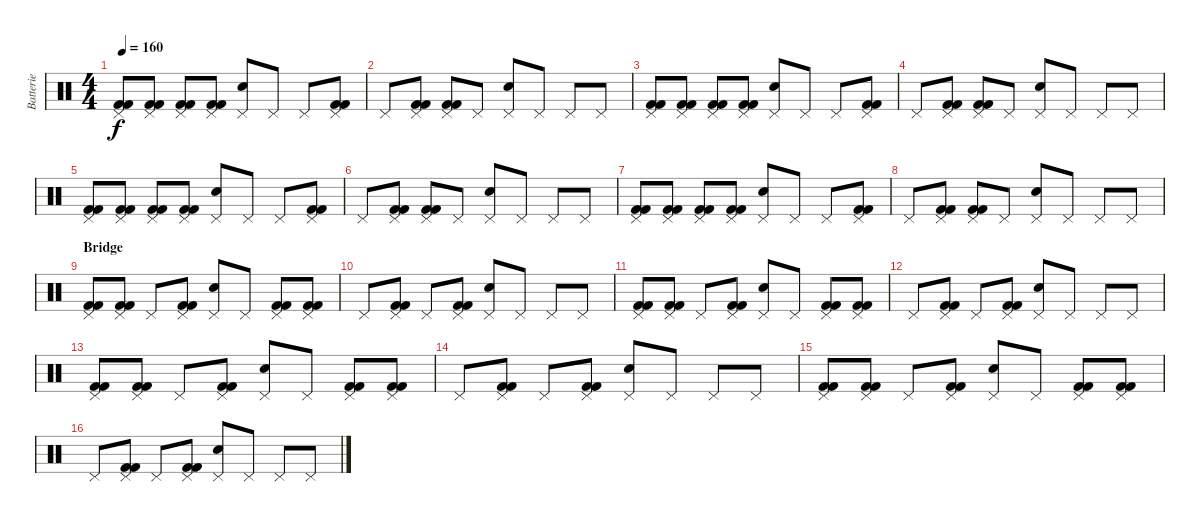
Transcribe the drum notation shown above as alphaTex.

\track ("Batterie" "Batterie") {instrument percussion}
\staff {score}
\articulation defaults
\ts (4 4)
\tempo 160
\clef neutral
\ks c
("Pedal Hi-Hat (hit)" "Kick (hit) 2" "Kick (hit) 2").8{dy f} ("Pedal Hi-Hat (hit)" "Kick (hit) 2" "Kick (hit) 2").8 ("Pedal Hi-Hat (hit)" "Kick (hit) 2" "Kick (hit) 2").8 ("Pedal Hi-Hat (hit)" "Kick (hit) 2" "Kick (hit) 2").8 ("Pedal Hi-Hat (hit)" "Electric Snare (hit)").8 "Pedal Hi-Hat (hit)".8 "Pedal Hi-Hat (hit)".8 ("Pedal Hi-Hat (hit)" "Kick (hit) 2" "Kick (hit) 2").8 |
"Pedal Hi-Hat (hit)".8 ("Pedal Hi-Hat (hit)" "Kick (hit) 2" "Kick (hit) 2").8 ("Pedal Hi-Hat (hit)" "Kick (hit) 2" "Kick (hit) 2").8 "Pedal Hi-Hat (hit)".8 ("Pedal Hi-Hat (hit)" "Electric Snare (hit)").8 "Pedal Hi-Hat (hit)".8 "Pedal Hi-Hat (hit)".8 "Pedal Hi-Hat (hit)".8 |
("Pedal Hi-Hat (hit)" "Kick (hit) 2" "Kick (hit) 2").8 ("Pedal Hi-Hat (hit)" "Kick (hit) 2" "Kick (hit) 2").8 ("Pedal Hi-Hat (hit)" "Kick (hit) 2" "Kick (hit) 2").8 ("Pedal Hi-Hat (hit)" "Kick (hit) 2" "Kick (hit) 2").8 ("Pedal Hi-Hat (hit)" "Electric Snare (hit)").8 "Pedal Hi-Hat (hit)".8 "Pedal Hi-Hat (hit)".8 ("Pedal Hi-Hat (hit)" "Kick (hit) 2" "Kick (hit) 2").8 |
"Pedal Hi-Hat (hit)".8 ("Pedal Hi-Hat (hit)" "Kick (hit) 2" "Kick (hit) 2").8 ("Pedal Hi-Hat (hit)" "Kick (hit) 2" "Kick (hit) 2").8 "Pedal Hi-Hat (hit)".8 ("Pedal Hi-Hat (hit)" "Electric Snare (hit)").8 "Pedal Hi-Hat (hit)".8 "Pedal Hi-Hat (hit)".8 "Pedal Hi-Hat (hit)".8 |
("Pedal Hi-Hat (hit)" "Kick (hit) 2" "Kick (hit) 2").8 ("Pedal Hi-Hat (hit)" "Kick (hit) 2" "Kick (hit) 2").8 ("Pedal Hi-Hat (hit)" "Kick (hit) 2" "Kick (hit) 2").8 ("Pedal Hi-Hat (hit)" "Kick (hit) 2" "Kick (hit) 2").8 ("Pedal Hi-Hat (hit)" "Electric Snare (hit)").8 "Pedal Hi-Hat (hit)".8 "Pedal Hi-Hat (hit)".8 ("Pedal Hi-Hat (hit)" "Kick (hit) 2" "Kick (hit) 2").8 |
"Pedal Hi-Hat (hit)".8 ("Pedal Hi-Hat (hit)" "Kick (hit) 2" "Kick (hit) 2").8 ("Pedal Hi-Hat (hit)" "Kick (hit) 2" "Kick (hit) 2").8 "Pedal Hi-Hat (hit)".8 ("Pedal Hi-Hat (hit)" "Electric Snare (hit)").8 "Pedal Hi-Hat (hit)".8 "Pedal Hi-Hat (hit)".8 "Pedal Hi-Hat (hit)".8 |
("Pedal Hi-Hat (hit)" "Kick (hit) 2" "Kick (hit) 2").8 ("Pedal Hi-Hat (hit)" "Kick (hit) 2" "Kick (hit) 2").8 ("Pedal Hi-Hat (hit)" "Kick (hit) 2" "Kick (hit) 2").8 ("Pedal Hi-Hat (hit)" "Kick (hit) 2" "Kick (hit) 2").8 ("Pedal Hi-Hat (hit)" "Electric Snare (hit)").8 "Pedal Hi-Hat (hit)".8 "Pedal Hi-Hat (hit)".8 ("Pedal Hi-Hat (hit)" "Kick (hit) 2" "Kick (hit) 2").8 |
"Pedal Hi-Hat (hit)".8 ("Pedal Hi-Hat (hit)" "Kick (hit) 2" "Kick (hit) 2").8 ("Pedal Hi-Hat (hit)" "Kick (hit) 2" "Kick (hit) 2").8 "Pedal Hi-Hat (hit)".8 ("Pedal Hi-Hat (hit)" "Electric Snare (hit)").8 "Pedal Hi-Hat (hit)".8 "Pedal Hi-Hat (hit)".8 "Pedal Hi-Hat (hit)".8 |
\section ("" "Bridge")
("Pedal Hi-Hat (hit)" "Kick (hit) 2" "Kick (hit) 2").8 ("Pedal Hi-Hat (hit)" "Kick (hit) 2" "Kick (hit) 2").8 "Pedal Hi-Hat (hit)".8 ("Pedal Hi-Hat (hit)" "Kick (hit) 2" "Kick (hit) 2").8 ("Pedal Hi-Hat (hit)" "Electric Snare (hit)").8 "Pedal Hi-Hat (hit)".8 ("Pedal Hi-Hat (hit)" "Kick (hit) 2" "Kick (hit) 2").8 ("Pedal Hi-Hat (hit)" "Kick (hit) 2" "Kick (hit) 2").8 |
"Pedal Hi-Hat (hit)".8 ("Pedal Hi-Hat (hit)" "Kick (hit) 2" "Kick (hit) 2").8 "Pedal Hi-Hat (hit)".8 ("Pedal Hi-Hat (hit)" "Kick (hit) 2" "Kick (hit) 2").8 ("Pedal Hi-Hat (hit)" "Electric Snare (hit)").8 "Pedal Hi-Hat (hit)".8 "Pedal Hi-Hat (hit)".8 "Pedal Hi-Hat (hit)".8 |
("Pedal Hi-Hat (hit)" "Kick (hit) 2" "Kick (hit) 2").8 ("Pedal Hi-Hat (hit)" "Kick (hit) 2" "Kick (hit) 2").8 "Pedal Hi-Hat (hit)".8 ("Pedal Hi-Hat (hit)" "Kick (hit) 2" "Kick (hit) 2").8 ("Pedal Hi-Hat (hit)" "Electric Snare (hit)").8 "Pedal Hi-Hat (hit)".8 ("Pedal Hi-Hat (hit)" "Kick (hit) 2" "Kick (hit) 2").8 ("Pedal Hi-Hat (hit)" "Kick (hit) 2" "Kick (hit) 2").8 |
"Pedal Hi-Hat (hit)".8 ("Pedal Hi-Hat (hit)" "Kick (hit) 2" "Kick (hit) 2").8 "Pedal Hi-Hat (hit)".8 ("Pedal Hi-Hat (hit)" "Kick (hit) 2" "Kick (hit) 2").8 ("Pedal Hi-Hat (hit)" "Electric Snare (hit)").8 "Pedal Hi-Hat (hit)".8 "Pedal Hi-Hat (hit)".8 "Pedal Hi-Hat (hit)".8 |
("Pedal Hi-Hat (hit)" "Kick (hit) 2" "Kick (hit) 2").8 ("Pedal Hi-Hat (hit)" "Kick (hit) 2" "Kick (hit) 2").8 "Pedal Hi-Hat (hit)".8 ("Pedal Hi-Hat (hit)" "Kick (hit) 2" "Kick (hit) 2").8 ("Pedal Hi-Hat (hit)" "Electric Snare (hit)").8 "Pedal Hi-Hat (hit)".8 ("Pedal Hi-Hat (hit)" "Kick (hit) 2" "Kick (hit) 2").8 ("Pedal Hi-Hat (hit)" "Kick (hit) 2" "Kick (hit) 2").8 |
"Pedal Hi-Hat (hit)".8 ("Pedal Hi-Hat (hit)" "Kick (hit) 2" "Kick (hit) 2").8 "Pedal Hi-Hat (hit)".8 ("Pedal Hi-Hat (hit)" "Kick (hit) 2" "Kick (hit) 2").8 ("Pedal Hi-Hat (hit)" "Electric Snare (hit)").8 "Pedal Hi-Hat (hit)".8 "Pedal Hi-Hat (hit)".8 "Pedal Hi-Hat (hit)".8 |
("Pedal Hi-Hat (hit)" "Kick (hit) 2" "Kick (hit) 2").8 ("Pedal Hi-Hat (hit)" "Kick (hit) 2" "Kick (hit) 2").8 "Pedal Hi-Hat (hit)".8 ("Pedal Hi-Hat (hit)" "Kick (hit) 2" "Kick (hit) 2").8 ("Pedal Hi-Hat (hit)" "Electric Snare (hit)").8 "Pedal Hi-Hat (hit)".8 ("Pedal Hi-Hat (hit)" "Kick (hit) 2" "Kick (hit) 2").8 ("Pedal Hi-Hat (hit)" "Kick (hit) 2" "Kick (hit) 2").8 |
"Pedal Hi-Hat (hit)".8 ("Pedal Hi-Hat (hit)" "Kick (hit) 2" "Kick (hit) 2").8 "Pedal Hi-Hat (hit)".8 ("Pedal Hi-Hat (hit)" "Kick (hit) 2" "Kick (hit) 2").8 ("Pedal Hi-Hat (hit)" "Electric Snare (hit)").8 "Pedal Hi-Hat (hit)".8 "Pedal Hi-Hat (hit)".8 "Pedal Hi-Hat (hit)".8
